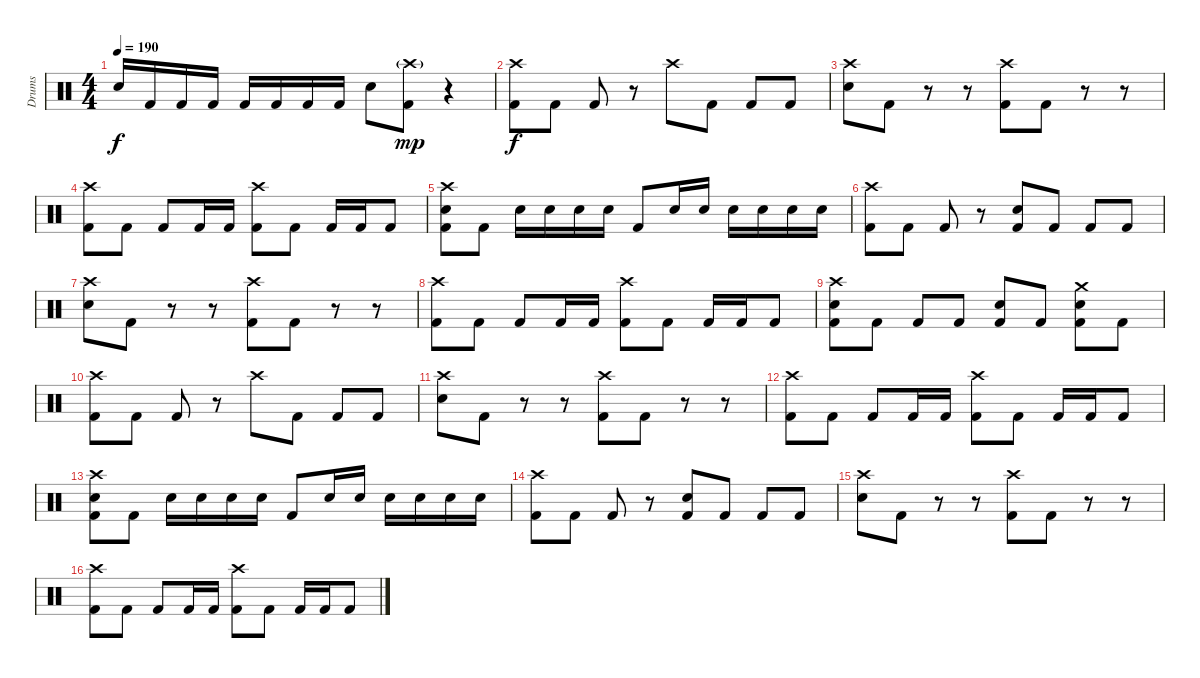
\track ("Drums" "Drums") {instrument percussion}
\staff {score}
\articulation defaults
\ts (4 4)
\tempo 190
\clef neutral
\ks c "Electric Snare (hit)".16{dy f} "Kick (hit) 2".16 "Kick (hit) 2".16 "Kick (hit) 2".16 "Kick (hit) 2".16 "Kick (hit) 2".16 "Kick (hit) 2".16 "Kick (hit) 2".16 "Electric Snare (hit)".8
("Crash high (hit)"{g} "Kick (hit) 2").8{dy mp} r.4 |
("Crash high (hit)" "Kick (hit) 2").8{dy f} "Kick (hit) 2".8 "Kick (hit) 2".8 r.8 "Crash high (hit)".8 "Kick (hit) 2".8 "Kick (hit) 2".8 "Kick (hit) 2".8 |
("Crash high (hit)" "Electric Snare (hit)").8 "Kick (hit) 2".8 r.8 r.8 ("Crash high (hit)" "Kick (hit) 2").8 "Kick (hit) 2".8 r.8 r.8 |
("Crash high (hit)" "Kick (hit) 2").8 "Kick (hit) 2".8 "Kick (hit) 2".8 "Kick (hit) 2".16 "Kick (hit) 2".16 ("Crash high (hit)" "Kick (hit) 2").8 "Kick (hit) 2".8 "Kick (hit) 2".16 "Kick (hit) 2".16 "Kick (hit) 2".8 |
("Crash high (hit)" "Electric Snare (hit)" "Kick (hit) 2").8 "Kick (hit) 2".8 "Electric Snare (hit)".16 "Electric Snare (hit)".16 "Electric Snare (hit)".16 "Electric Snare (hit)".16 "Kick (hit) 2".8 "Electric Snare (hit)".16 "Electric Snare (hit)".16 "Electric Snare (hit)".16 "Electric Snare (hit)".16 "Electric Snare (hit)".16 "Electric Snare (hit)".16 |
("Crash high (hit)" "Kick (hit) 2").8 "Kick (hit) 2".8 "Kick (hit) 2".8 r.8 ("Electric Snare (hit)" "Kick (hit) 2").8 "Kick (hit) 2".8 "Kick (hit) 2".8 "Kick (hit) 2".8 |
("Crash high (hit)" "Electric Snare (hit)").8 "Kick (hit) 2".8 r.8 r.8 ("Crash high (hit)" "Kick (hit) 2").8 "Kick (hit) 2".8 r.8 r.8 |
("Crash high (hit)" "Kick (hit) 2").8 "Kick (hit) 2".8 "Kick (hit) 2".8 "Kick (hit) 2".16 "Kick (hit) 2".16 ("Crash high (hit)" "Kick (hit) 2").8 "Kick (hit) 2".8 "Kick (hit) 2".16 "Kick (hit) 2".16 "Kick (hit) 2".8 |
("Crash high (hit)" "Electric Snare (hit)" "Kick (hit) 2").8 "Kick (hit) 2".8 "Kick (hit) 2".8 "Kick (hit) 2".8 ("Electric Snare (hit)" "Kick (hit) 2").8 "Kick (hit) 2".8 ("Crash medium (hit)" "Electric Snare (hit)" "Kick (hit) 2").8 "Kick (hit) 2".8 |
("Crash high (hit)" "Kick (hit) 2").8 "Kick (hit) 2".8 "Kick (hit) 2".8 r.8 "Crash high (hit)".8 "Kick (hit) 2".8 "Kick (hit) 2".8 "Kick (hit) 2".8 |
("Crash high (hit)" "Electric Snare (hit)").8 "Kick (hit) 2".8 r.8 r.8 ("Crash high (hit)" "Kick (hit) 2").8 "Kick (hit) 2".8 r.8 r.8 |
("Crash high (hit)" "Kick (hit) 2").8 "Kick (hit) 2".8 "Kick (hit) 2".8 "Kick (hit) 2".16 "Kick (hit) 2".16 ("Crash high (hit)" "Kick (hit) 2").8 "Kick (hit) 2".8 "Kick (hit) 2".16 "Kick (hit) 2".16 "Kick (hit) 2".8 |
("Crash high (hit)" "Electric Snare (hit)" "Kick (hit) 2").8 "Kick (hit) 2".8 "Electric Snare (hit)".16 "Electric Snare (hit)".16 "Electric Snare (hit)".16 "Electric Snare (hit)".16 "Kick (hit) 2".8 "Electric Snare (hit)".16 "Electric Snare (hit)".16 "Electric Snare (hit)".16 "Electric Snare (hit)".16 "Electric Snare (hit)".16 "Electric Snare (hit)".16 |
("Crash high (hit)" "Kick (hit) 2").8 "Kick (hit) 2".8 "Kick (hit) 2".8 r.8 ("Electric Snare (hit)" "Kick (hit) 2").8 "Kick (hit) 2".8 "Kick (hit) 2".8 "Kick (hit) 2".8 |
("Crash high (hit)" "Electric Snare (hit)").8 "Kick (hit) 2".8 r.8 r.8 ("Crash high (hit)" "Kick (hit) 2").8 "Kick (hit) 2".8 r.8 r.8 |
("Crash high (hit)" "Kick (hit) 2").8 "Kick (hit) 2".8 "Kick (hit) 2".8 "Kick (hit) 2".16 "Kick (hit) 2".16 ("Crash high (hit)" "Kick (hit) 2").8 "Kick (hit) 2".8 "Kick (hit) 2".16 "Kick (hit) 2".16 "Kick (hit) 2".8
